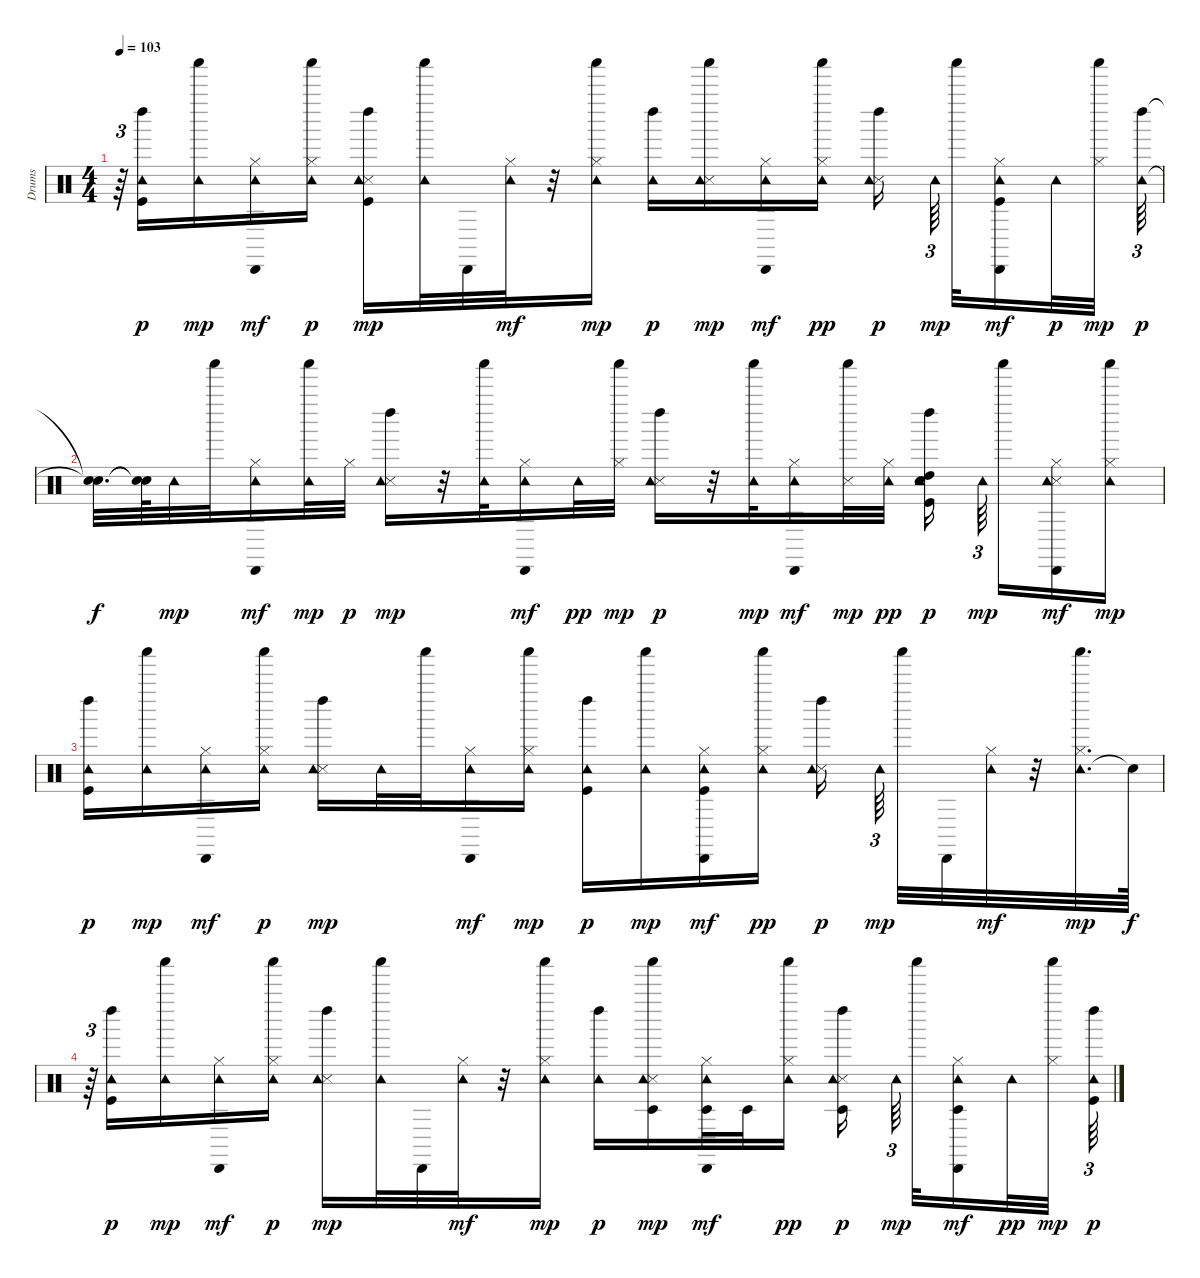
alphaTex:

\track ("Drums" "Drums") {instrument percussion}
\staff {score}
\articulation defaults
\ts (4 4)
\tempo 103
\clef neutral
\ks c
r.64{tu (3 2) dy f} ("Left Maraca (hit)" "Kick (hit)" "Tambourine (hit)").16{dy p} ("Tambourine (hit)" "Shaker (hit)").16{dy mp} ("Cabasa (hit)" "Hi-Hat (closed)" "Tambourine (hit)").16{dy mf} ("Tambourine (hit)" "Shaker (hit)" "Hi-Hat (closed)").16{dy p} ("Left Maraca (hit)" "Kick (hit)" "Snare (side stick) 3" "Tambourine (hit)").16{dy mp} ("Tambourine (hit)" "Shaker (hit)").32 "Cabasa (hit)".32 ("Hi-Hat (closed)" "Tambourine (hit)").32{dy mf} r.32 ("Tambourine (hit)" "Hi-Hat (closed)" "Shaker (hit)").16{dy mp} ("Left Maraca (hit)" "Tambourine (hit)").16{dy p} ("Snare (side stick) 3" "Tambourine (hit)" "Shaker (hit)").16{dy mp} ("Cabasa (hit)" "Hi-Hat (closed)" "Tambourine (hit)").16{dy mf} ("Shaker (hit)" "Hi-Hat (closed)" "Tambourine (hit)").16{dy pp} ("Left Maraca (hit)" "Snare (side stick) 3" "Tambourine (hit)").16{dy p beam splitsecondary} "Tambourine (hit)".64{tu (3 2) dy mp beam splitsecondary} "Shaker (hit)".32 ("Cabasa (hit)" "Kick (hit)" "Hi-Hat (closed)" "Tambourine (hit)").16{dy mf} "Tambourine (hit)".32{dy p} ("Hi-Hat (closed)" "Shaker (hit)").32{dy mp beam splitsecondary} ("Left Maraca (hit)" "Tambourine (hit)").64{tu (3 2) dy p} |
("Snare (hit)"{t} "Snare (hit)"{t}).32{d dy f} ("Snare (hit)"{t} "Snare (hit)"{t}).64 "Tambourine (hit)".32{dy mp} "Shaker (hit)".32 ("Cabasa (hit)" "Hi-Hat (closed)" "Tambourine (hit)").16{dy mf} ("Tambourine (hit)" "Shaker (hit)").32{dy mp} "Hi-Hat (closed)".32{dy p} ("Left Maraca (hit)" "Snare (side stick) 3" "Tambourine (hit)").16{dy mp} r.32 ("Tambourine (hit)" "Shaker (hit)").32 ("Cabasa (hit)" "Hi-Hat (closed)" "Tambourine (hit)").16{dy mf} "Tambourine (hit)".32{dy pp} ("Hi-Hat (closed)" "Shaker (hit)").32{dy mp} ("Left Maraca (hit)" "Snare (side stick) 3" "Tambourine (hit)").16{dy p} r.32 ("Tambourine (hit)" "Shaker (hit)").32{dy mp} ("Cabasa (hit)" "Hi-Hat (closed)" "Tambourine (hit)").16{dy mf} ("Shaker (hit)" "Snare (side stick) 3").32{dy mp} ("Hi-Hat (closed)" "Tambourine (hit)").32{dy pp} ("Left Maraca (hit)" "Snare (hit) 2" "Kick (hit)" "High Tom (hit)" "Tambourine (hit)").16{dy p beam splitsecondary} "Tambourine (hit)".64{tu (3 2) dy mp beam splitsecondary} "Shaker (hit)".16 ("Cabasa (hit)" "Snare (side stick) 3" "Hi-Hat (closed)" "Tambourine (hit)").16{dy mf} ("Tambourine (hit)" "Hi-Hat (closed)" "Shaker (hit)").16{dy mp} |
("Left Maraca (hit)" "Kick (hit)" "Tambourine (hit)").16{dy p} ("Tambourine (hit)" "Shaker (hit)").16{dy mp} ("Cabasa (hit)" "Hi-Hat (closed)" "Tambourine (hit)").16{dy mf} ("Tambourine (hit)" "Shaker (hit)" "Hi-Hat (closed)").16{dy p} ("Left Maraca (hit)" "Snare (side stick) 3" "Tambourine (hit)").16{dy mp} "Tambourine (hit)".32 "Shaker (hit)".32 ("Cabasa (hit)" "Hi-Hat (closed)" "Tambourine (hit)").16{dy mf} ("Tambourine (hit)" "Hi-Hat (closed)" "Shaker (hit)").16{dy mp} ("Left Maraca (hit)" "Kick (hit)" "Tambourine (hit)").16{dy p} ("Tambourine (hit)" "Shaker (hit)").16{dy mp} ("Cabasa (hit)" "Kick (hit)" "Hi-Hat (closed)" "Tambourine (hit)").16{dy mf} ("Shaker (hit)" "Hi-Hat (closed)" "Tambourine (hit)").16{dy pp} ("Left Maraca (hit)" "Snare (side stick) 3" "Tambourine (hit)").16{dy p beam splitsecondary} "Tambourine (hit)".64{tu (3 2) dy mp beam splitsecondary} "Shaker (hit)".32 "Cabasa (hit)".32 ("Hi-Hat (closed)" "Tambourine (hit)").32{dy mf} r.32 ("Tambourine (hit)" "Hi-Hat (closed)" "Shaker (hit)").32{d dy mp} "Snare (hit)"{t}.64{dy f} |
r.64{tu (3 2)} ("Left Maraca (hit)" "Kick (hit)" "Tambourine (hit)").16{dy p} ("Tambourine (hit)" "Shaker (hit)").16{dy mp} ("Cabasa (hit)" "Hi-Hat (closed)" "Tambourine (hit)").16{dy mf} ("Tambourine (hit)" "Shaker (hit)" "Hi-Hat (closed)").16{dy p} ("Left Maraca (hit)" "Snare (side stick) 3" "Tambourine (hit)").16{dy mp} ("Tambourine (hit)" "Shaker (hit)").32 "Cabasa (hit)".32 ("Hi-Hat (closed)" "Tambourine (hit)").32{dy mf} r.32 ("Tambourine (hit)" "Hi-Hat (closed)" "Shaker (hit)").16{dy mp} ("Left Maraca (hit)" "Tambourine (hit)").16{dy p} ("Snare (side stick) 3" "Tambourine (hit)" "Timbale low (hit)" "Shaker (hit)").16{dy mp} ("Cabasa (hit)" "Hi-Hat (closed)" "Timbale low (hit)" "Tambourine (hit)").32{dy mf} "Timbale low (hit)".32 ("Shaker (hit)" "Hi-Hat (closed)" "Tambourine (hit)").16{dy pp} ("Timbale low (hit)" "Left Maraca (hit)" "Snare (side stick) 3" "Tambourine (hit)").16{dy p beam splitsecondary} "Tambourine (hit)".64{tu (3 2) dy mp beam splitsecondary} "Shaker (hit)".32 ("Cabasa (hit)" "Timbale low (hit)" "Hi-Hat (closed)" "Tambourine (hit)").16{dy mf} "Tambourine (hit)".32{dy pp} ("Hi-Hat (closed)" "Shaker (hit)").32{dy mp beam splitsecondary} ("Left Maraca (hit)" "Kick (hit)" "Tambourine (hit)").64{tu (3 2) dy p}
